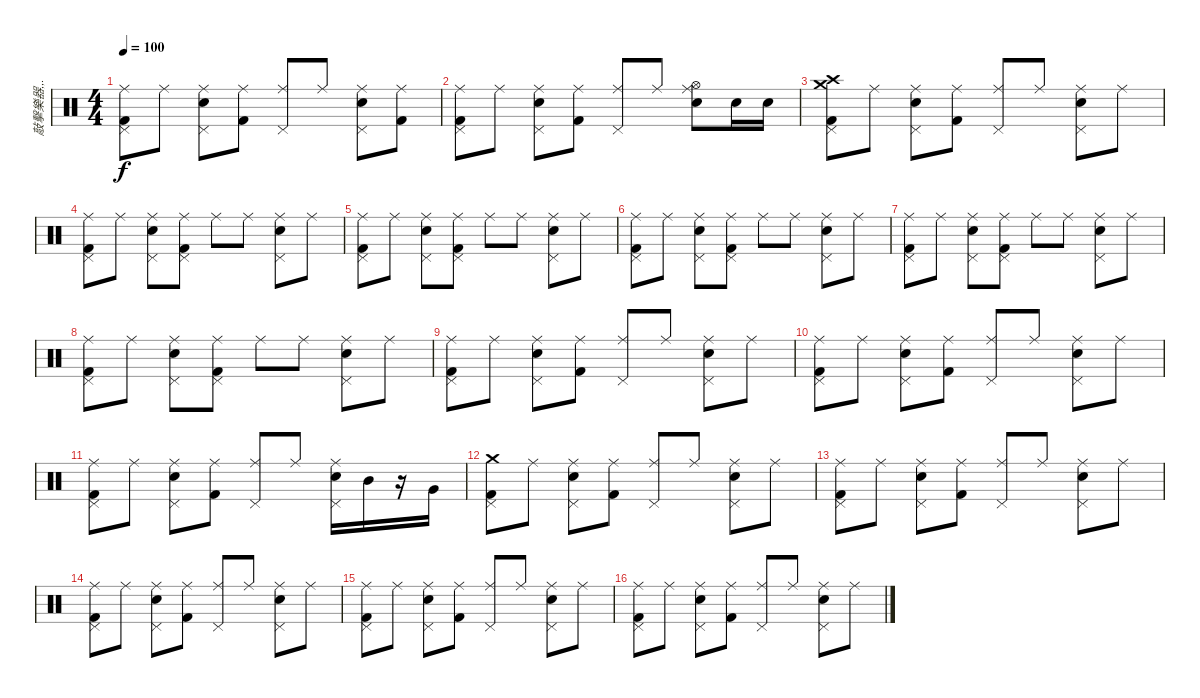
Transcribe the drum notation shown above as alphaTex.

\track ("敲擊樂器,,." "敲擊樂器,,.") {instrument percussion}
\staff {score}
\articulation defaults
\ts (4 4)
\tempo 100
\clef neutral
\ks c
("Ride (middle)" "Pedal Hi-Hat (hit)" "Kick (hit) 2").8{dy f} "Ride (middle)".8 ("Ride (middle)" "Pedal Hi-Hat (hit)" "Snare (hit) 2").8 ("Ride (middle)" "Kick (hit) 2").8 ("Ride (middle)" "Pedal Hi-Hat (hit)").8 "Ride (middle)".8 ("Ride (middle)" "Pedal Hi-Hat (hit)" "Snare (hit) 2").8 ("Ride (middle)" "Kick (hit) 2").8 |
("Ride (middle)" "Pedal Hi-Hat (hit)" "Kick (hit) 2").8 "Ride (middle)".8 ("Ride (middle)" "Pedal Hi-Hat (hit)" "Snare (hit) 2").8 ("Ride (middle)" "Kick (hit) 2").8 ("Ride (middle)" "Pedal Hi-Hat (hit)").8 "Ride (middle)".8 ("Ride (middle)" "Hi-Hat (open)" "Snare (hit) 2").8 "Snare (hit) 2".16 "Snare (hit) 2".16 |
("Crash medium (hit)" "Pedal Hi-Hat (hit)" "Crash high (hit)" "Kick (hit) 2").8 "Ride (middle)".8 ("Ride (middle)" "Pedal Hi-Hat (hit)" "Snare (hit) 2").8 ("Ride (middle)" "Kick (hit) 2").8 ("Ride (middle)" "Pedal Hi-Hat (hit)").8 "Ride (middle)".8 ("Ride (middle)" "Pedal Hi-Hat (hit)" "Snare (hit) 2").8 "Ride (middle)".8 |
("Ride (middle)" "Pedal Hi-Hat (hit)" "Kick (hit) 2").8 "Ride (middle)".8 ("Ride (middle)" "Pedal Hi-Hat (hit)" "Snare (hit) 2").8 ("Ride (middle)" "Pedal Hi-Hat (hit)" "Kick (hit) 2").8 "Ride (middle)".8 "Ride (middle)".8 ("Ride (middle)" "Pedal Hi-Hat (hit)" "Snare (hit) 2").8 "Ride (middle)".8 |
("Ride (middle)" "Pedal Hi-Hat (hit)" "Kick (hit) 2").8 "Ride (middle)".8 ("Ride (middle)" "Pedal Hi-Hat (hit)" "Snare (hit) 2").8 ("Ride (middle)" "Pedal Hi-Hat (hit)" "Kick (hit) 2").8 "Ride (middle)".8 "Ride (middle)".8 ("Ride (middle)" "Pedal Hi-Hat (hit)" "Snare (hit) 2").8 "Ride (middle)".8 |
("Ride (middle)" "Pedal Hi-Hat (hit)" "Kick (hit) 2").8 "Ride (middle)".8 ("Ride (middle)" "Pedal Hi-Hat (hit)" "Snare (hit) 2").8 ("Ride (middle)" "Pedal Hi-Hat (hit)" "Kick (hit) 2").8 "Ride (middle)".8 "Ride (middle)".8 ("Ride (middle)" "Pedal Hi-Hat (hit)" "Snare (hit) 2").8 "Ride (middle)".8 |
("Ride (middle)" "Pedal Hi-Hat (hit)" "Kick (hit) 2").8 "Ride (middle)".8 ("Ride (middle)" "Pedal Hi-Hat (hit)" "Snare (hit) 2").8 ("Ride (middle)" "Pedal Hi-Hat (hit)" "Kick (hit) 2").8 "Ride (middle)".8 "Ride (middle)".8 ("Ride (middle)" "Pedal Hi-Hat (hit)" "Snare (hit) 2").8 "Ride (middle)".8 |
("Ride (middle)" "Pedal Hi-Hat (hit)" "Kick (hit) 2").8 "Ride (middle)".8 ("Ride (middle)" "Pedal Hi-Hat (hit)" "Snare (hit) 2").8 ("Ride (middle)" "Pedal Hi-Hat (hit)" "Kick (hit) 2").8 "Ride (middle)".8 "Ride (middle)".8 ("Ride (middle)" "Pedal Hi-Hat (hit)" "Snare (hit) 2").8 "Ride (middle)".8 |
("Ride (middle)" "Pedal Hi-Hat (hit)" "Kick (hit) 2").8 "Ride (middle)".8 ("Ride (middle)" "Pedal Hi-Hat (hit)" "Snare (hit) 2").8 ("Ride (middle)" "Kick (hit) 2").8 ("Ride (middle)" "Pedal Hi-Hat (hit)").8 "Ride (middle)".8 ("Ride (middle)" "Pedal Hi-Hat (hit)" "Snare (hit) 2").8 "Ride (middle)".8 |
("Ride (middle)" "Pedal Hi-Hat (hit)" "Kick (hit) 2").8 "Ride (middle)".8 ("Ride (middle)" "Pedal Hi-Hat (hit)" "Snare (hit) 2").8 ("Ride (middle)" "Kick (hit) 2").8 ("Ride (middle)" "Pedal Hi-Hat (hit)").8 "Ride (middle)".8 ("Ride (middle)" "Pedal Hi-Hat (hit)" "Snare (hit) 2").8 "Ride (middle)".8 |
("Ride (middle)" "Pedal Hi-Hat (hit)" "Kick (hit) 2").8 "Ride (middle)".8 ("Ride (middle)" "Pedal Hi-Hat (hit)" "Snare (hit) 2").8 ("Ride (middle)" "Kick (hit) 2").8 ("Ride (middle)" "Pedal Hi-Hat (hit)").8 "Ride (middle)".8 ("Ride (middle)" "Pedal Hi-Hat (hit)" "Snare (hit) 2").16 "Mid Tom (hit)".16 r.16 "Very Low Tom (hit)".16 |
("Crash medium (hit)" "Pedal Hi-Hat (hit)" "Kick (hit) 2").8 "Ride (middle)".8 ("Ride (middle)" "Pedal Hi-Hat (hit)" "Snare (hit) 2").8 ("Ride (middle)" "Kick (hit) 2").8 ("Ride (middle)" "Pedal Hi-Hat (hit)").8 "Ride (middle)".8 ("Ride (middle)" "Pedal Hi-Hat (hit)" "Snare (hit) 2").8 "Ride (middle)".8 |
("Ride (middle)" "Pedal Hi-Hat (hit)" "Kick (hit) 2").8 "Ride (middle)".8 ("Ride (middle)" "Pedal Hi-Hat (hit)" "Snare (hit) 2").8 ("Ride (middle)" "Kick (hit) 2").8 ("Ride (middle)" "Pedal Hi-Hat (hit)").8 "Ride (middle)".8 ("Ride (middle)" "Pedal Hi-Hat (hit)" "Snare (hit) 2").8 "Ride (middle)".8 |
("Ride (middle)" "Pedal Hi-Hat (hit)" "Kick (hit) 2").8 "Ride (middle)".8 ("Ride (middle)" "Pedal Hi-Hat (hit)" "Snare (hit) 2").8 ("Ride (middle)" "Kick (hit) 2").8 ("Ride (middle)" "Pedal Hi-Hat (hit)").8 "Ride (middle)".8 ("Ride (middle)" "Pedal Hi-Hat (hit)" "Snare (hit) 2").8 "Ride (middle)".8 |
("Ride (middle)" "Pedal Hi-Hat (hit)" "Kick (hit) 2").8 "Ride (middle)".8 ("Ride (middle)" "Pedal Hi-Hat (hit)" "Snare (hit) 2").8 ("Ride (middle)" "Kick (hit) 2").8 ("Ride (middle)" "Pedal Hi-Hat (hit)").8 "Ride (middle)".8 ("Ride (middle)" "Pedal Hi-Hat (hit)" "Snare (hit) 2").8 "Ride (middle)".8 |
("Ride (middle)" "Pedal Hi-Hat (hit)" "Kick (hit) 2").8 "Ride (middle)".8 ("Ride (middle)" "Pedal Hi-Hat (hit)" "Snare (hit) 2").8 ("Ride (middle)" "Kick (hit) 2").8 ("Ride (middle)" "Pedal Hi-Hat (hit)").8 "Ride (middle)".8 ("Ride (middle)" "Pedal Hi-Hat (hit)" "Snare (hit) 2").8 "Ride (middle)".8
